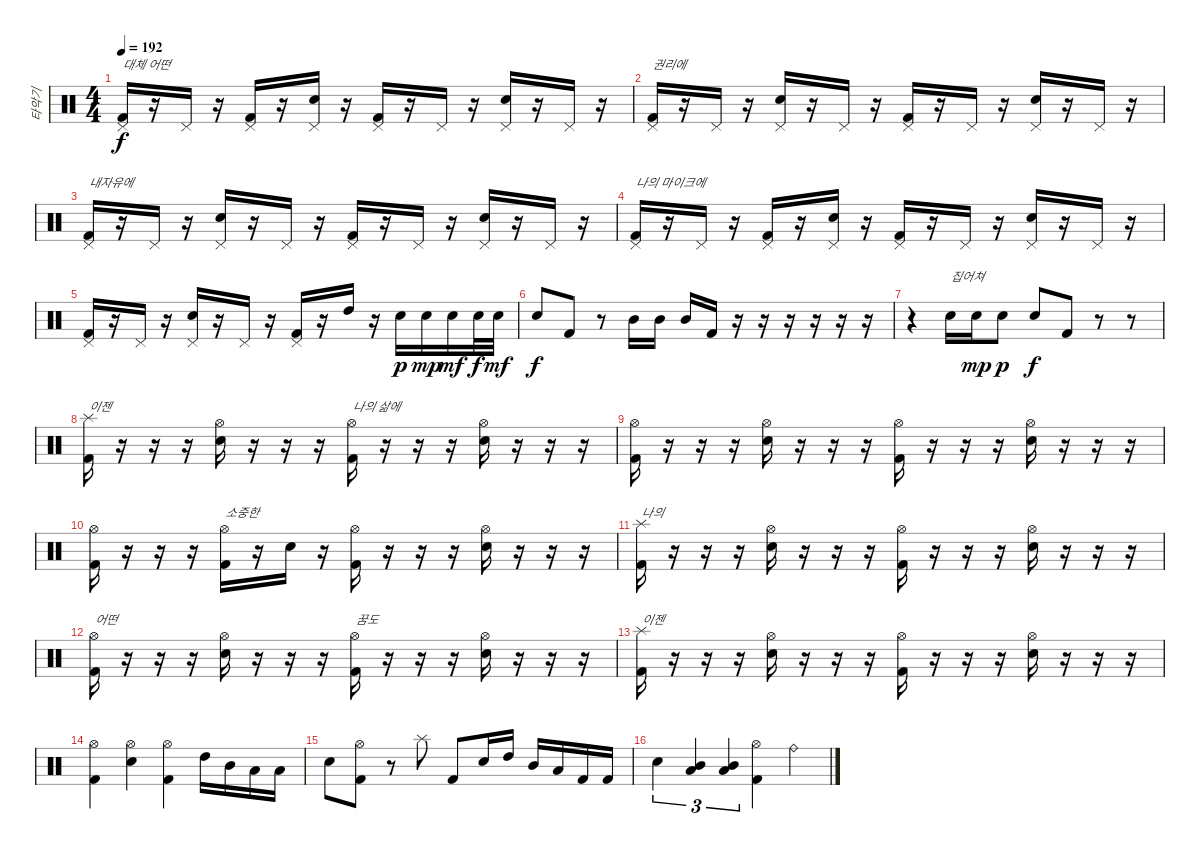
\track ("타악기" "타악기") {instrument percussion}
\staff {score}
\articulation defaults
\ts (4 4)
\tempo 192
\clef neutral
\ks c
("Pedal Hi-Hat (hit)" "Kick (hit) 2").16{txt "대체 어떤" dy f} r.16 "Pedal Hi-Hat (hit)".16 r.16 ("Pedal Hi-Hat (hit)" "Kick (hit) 2").16 r.16 ("Pedal Hi-Hat (hit)" "Snare (hit) 2").16 r.16 ("Pedal Hi-Hat (hit)" "Kick (hit) 2").16 r.16 "Pedal Hi-Hat (hit)".16 r.16 ("Pedal Hi-Hat (hit)" "Snare (hit) 2").16 r.16 "Pedal Hi-Hat (hit)".16 r.16 |
("Pedal Hi-Hat (hit)" "Kick (hit) 2").16{txt "권리에"} r.16 "Pedal Hi-Hat (hit)".16 r.16 ("Pedal Hi-Hat (hit)" "Snare (hit) 2").16 r.16 "Pedal Hi-Hat (hit)".16 r.16 ("Pedal Hi-Hat (hit)" "Kick (hit) 2").16 r.16 "Pedal Hi-Hat (hit)".16 r.16 ("Pedal Hi-Hat (hit)" "Snare (hit) 2").16 r.16 "Pedal Hi-Hat (hit)".16 r.16 |
("Pedal Hi-Hat (hit)" "Kick (hit) 2").16{txt "내자유에"} r.16 "Pedal Hi-Hat (hit)".16 r.16 ("Pedal Hi-Hat (hit)" "Snare (hit) 2").16 r.16 "Pedal Hi-Hat (hit)".16 r.16 ("Pedal Hi-Hat (hit)" "Kick (hit) 2").16 r.16 "Pedal Hi-Hat (hit)".16 r.16 ("Pedal Hi-Hat (hit)" "Snare (hit) 2").16 r.16 "Pedal Hi-Hat (hit)".16 r.16 |
("Pedal Hi-Hat (hit)" "Kick (hit) 2").16{txt "나의 마이크에"} r.16 "Pedal Hi-Hat (hit)".16 r.16 ("Pedal Hi-Hat (hit)" "Kick (hit) 2").16 r.16 ("Pedal Hi-Hat (hit)" "Snare (hit) 2").16 r.16 ("Pedal Hi-Hat (hit)" "Kick (hit) 2").16 r.16 "Pedal Hi-Hat (hit)".16 r.16 ("Pedal Hi-Hat (hit)" "Snare (hit) 2").16 r.16 "Pedal Hi-Hat (hit)".16 r.16 |
("Pedal Hi-Hat (hit)" "Kick (hit) 2").16 r.16 "Pedal Hi-Hat (hit)".16 r.16 ("Pedal Hi-Hat (hit)" "Snare (hit) 2").16 r.16 "Pedal Hi-Hat (hit)".16 r.16 ("Pedal Hi-Hat (hit)" "Kick (hit) 2").16 r.16 "High Tom (hit)".16 r.16 "Snare (hit) 2".16{dy p} "Snare (hit) 2".16{dy mp} "Snare (hit) 2".16{dy mf} "Snare (hit) 2".32{dy f} "Snare (hit) 2".32{dy mf} |
"Snare (hit) 2".8{dy f} "Kick (hit) 2".8 r.8 "Mid Tom (hit)".16 "Mid Tom (hit)".16 "Mid Tom (hit)".16 "Kick (hit) 2".16 r.16 r.16 r.16 r.16 r.16 r.16 |
r.4 "Snare (hit) 2".16{txt "집어쳐"} "Snare (hit) 2".16{dy mp} "Snare (hit) 2".8{dy p} "Snare (hit) 2".8{dy f} "Kick (hit) 2".8 r.8 r.8 |
("Splash (hit)" "Kick (hit) 2").16{txt "이젠"} r.16 r.16 r.16 ("Hi-Hat (open)" "Snare (hit) 2").16 r.16 r.16 r.16 ("Hi-Hat (open)" "Kick (hit) 2").16{txt "나의 삶에"} r.16 r.16 r.16 ("Hi-Hat (open)" "Snare (hit) 2").16 r.16 r.16 r.16 |
("Hi-Hat (open)" "Kick (hit) 2").16 r.16 r.16 r.16 ("Hi-Hat (open)" "Snare (hit) 2").16 r.16 r.16 r.16 ("Hi-Hat (open)" "Kick (hit) 2").16 r.16 r.16 r.16 ("Hi-Hat (open)" "Snare (hit) 2").16 r.16 r.16 r.16 |
("Hi-Hat (open)" "Kick (hit) 2").16 r.16 r.16 r.16 ("Hi-Hat (open)" "Kick (hit) 2").16{txt "소중한"} r.16 "Snare (hit) 2".16 r.16 ("Hi-Hat (open)" "Kick (hit) 2").16 r.16 r.16 r.16 ("Hi-Hat (open)" "Snare (hit) 2").16 r.16 r.16 r.16 |
("Splash (hit)" "Kick (hit) 2").16{txt "나의"} r.16 r.16 r.16 ("Hi-Hat (open)" "Snare (hit) 2").16 r.16 r.16 r.16 ("Hi-Hat (open)" "Kick (hit) 2").16 r.16 r.16 r.16 ("Hi-Hat (open)" "Snare (hit) 2").16 r.16 r.16 r.16 |
("Hi-Hat (open)" "Kick (hit) 2").16{txt "어떤"} r.16 r.16 r.16 ("Hi-Hat (open)" "Snare (hit) 2").16 r.16 r.16 r.16 ("Hi-Hat (open)" "Kick (hit) 2").16{txt "꿈도"} r.16 r.16 r.16 ("Hi-Hat (open)" "Snare (hit) 2").16 r.16 r.16 r.16 |
("Splash (hit)" "Kick (hit) 2").16{txt "이젠"} r.16 r.16 r.16 ("Hi-Hat (open)" "Snare (hit) 2").16 r.16 r.16 r.16 ("Hi-Hat (open)" "Kick (hit) 2").16 r.16 r.16 r.16 ("Hi-Hat (open)" "Snare (hit) 2").16 r.16 r.16 r.16 |
("Hi-Hat (open)" "Kick (hit) 2").4 ("Hi-Hat (open)" "Snare (hit) 2").4 ("Hi-Hat (open)" "Kick (hit) 2").4 "High Tom (hit)".16 "Mid Tom (hit)".16 "Low Tom (hit)".16 "Low Tom (hit)".16 |
"Snare (hit) 2".8 ("Hi-Hat (open)" "Kick (hit) 2").8 r.8 "Splash (hit)".8 "Kick (hit) 2".8 "Snare (hit) 2".16 "High Tom (hit)".16 "Mid Tom (hit)".16 "Low Tom (hit)".16 "Kick (hit) 2".16 "Kick (hit) 2".16 |
"Snare (hit) 2".4{tu (3 2)} ("Mid Tom (hit)" "Low Tom (hit)").4{tu (3 2) bu 480} ("Mid Tom (hit)" "Low Tom (hit)").4{tu (3 2) bu 480} ("Hi-Hat (open)" "Kick (hit) 2").4 "Ride (bell)".4
